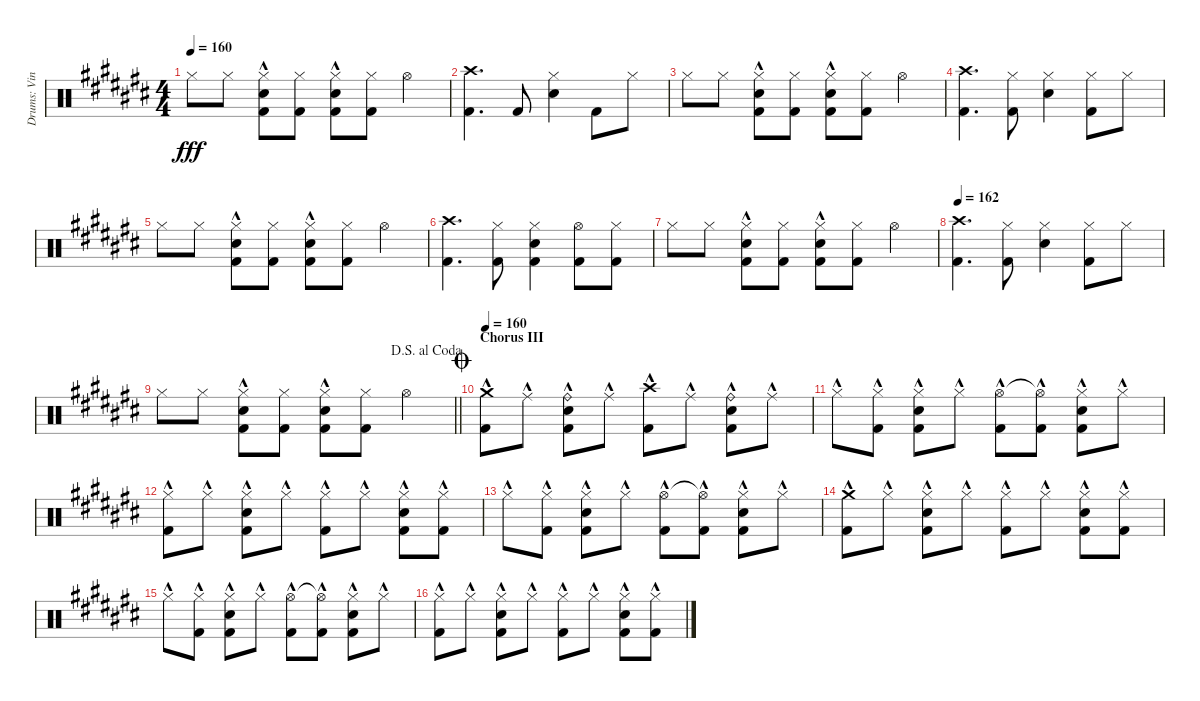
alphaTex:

\track ("Drums: Vinny" "Drums: Vin") {instrument percussion}
\staff {score}
\articulation defaults
\ts (4 4)
\tempo 160
\clef neutral
\ks c# "Hi-Hat (closed)".8{dy fff} "Hi-Hat (closed)".8
("Hi-Hat (closed)" "Snare (hit) 2"{hac} "Kick (hit) 2"{hac}).8 ("Hi-Hat (closed)" "Kick (hit) 2").8 ("Hi-Hat (closed)" "Electric Snare (hit)"{hac} "Kick (hit) 2"{hac}).8 ("Hi-Hat (closed)" "Kick (hit) 2").8 "Hi-Hat (open)".4 |
("Crash high (hit)" "Kick (hit) 2").4{d} "Kick (hit) 2".8 ("Hi-Hat (closed)" "Electric Snare (hit)").4 "Kick (hit) 2".8 "Hi-Hat (closed)".8 |
"Hi-Hat (closed)".8 "Hi-Hat (closed)".8 ("Hi-Hat (closed)" "Snare (hit) 2"{hac} "Kick (hit) 2"{hac}).8 ("Hi-Hat (closed)" "Kick (hit) 2").8 ("Hi-Hat (closed)" "Electric Snare (hit)"{hac} "Kick (hit) 2"{hac}).8 ("Hi-Hat (closed)" "Kick (hit) 2").8 "Hi-Hat (open)".4 |
("Crash high (hit)" "Kick (hit) 2").4{d} ("Hi-Hat (closed)" "Kick (hit) 2").8 ("Hi-Hat (closed)" "Electric Snare (hit)").4 ("Hi-Hat (closed)" "Kick (hit) 2").8 "Hi-Hat (closed)".8 |
"Hi-Hat (closed)".8 "Hi-Hat (closed)".8 ("Hi-Hat (closed)" "Snare (hit) 2"{hac} "Kick (hit) 2"{hac}).8 ("Hi-Hat (closed)" "Kick (hit) 2").8 ("Hi-Hat (closed)" "Electric Snare (hit)"{hac} "Kick (hit) 2"{hac}).8 ("Hi-Hat (closed)" "Kick (hit) 2").8 "Hi-Hat (open)".4 |
("Crash high (hit)" "Kick (hit) 2").4{d} ("Hi-Hat (closed)" "Kick (hit) 2").8 ("Hi-Hat (closed)" "Electric Snare (hit)" "Kick (hit) 2").4 ("Hi-Hat (open)" "Kick (hit) 2").8 ("Hi-Hat (closed)" "Kick (hit) 2").8 |
"Hi-Hat (closed)".8 "Hi-Hat (closed)".8 ("Hi-Hat (closed)" "Snare (hit) 2"{hac} "Kick (hit) 2"{hac}).8 ("Hi-Hat (closed)" "Kick (hit) 2").8 ("Hi-Hat (closed)" "Electric Snare (hit)"{hac} "Kick (hit) 2"{hac}).8 ("Hi-Hat (closed)" "Kick (hit) 2").8 "Hi-Hat (open)".4 |
\tempo 162
("Crash high (hit)" "Kick (hit) 2").4{d} ("Hi-Hat (closed)" "Kick (hit) 2").8 ("Hi-Hat (closed)" "Electric Snare (hit)").4 ("Hi-Hat (closed)" "Kick (hit) 2").8 "Hi-Hat (closed)".8 |
\jump dalsegnoalcoda
\barLineRight lightlight "Hi-Hat (closed)".8 "Hi-Hat (closed)".8
("Hi-Hat (closed)" "Snare (hit) 2"{hac} "Kick (hit) 2"{hac}).8 ("Hi-Hat (closed)" "Kick (hit) 2").8 ("Hi-Hat (closed)" "Electric Snare (hit)"{hac} "Kick (hit) 2"{hac}).8 ("Hi-Hat (closed)" "Kick (hit) 2").8 "Hi-Hat (open)".4 |
\section ("" "Chorus III")
\jump coda
\tempo 160
("Crash medium (hit)"{hac} "Kick (hit) 2"{hac}).8 "Ride (middle)"{hac}.8 ("Ride (bell)"{hac} "Snare (hit) 2"{hac} "Kick (hit) 2"{hac}).8 "Ride (middle)"{hac}.8 ("Crash high (hit)"{hac} "Kick (hit) 2"{hac}).8 "Ride (middle)"{hac}.8 ("Ride (bell)"{hac} "Snare (hit) 2"{hac} "Kick (hit) 2"{hac}).8 "Ride (middle)"{hac}.8 |
"Hi-Hat (closed)"{hac}.8 ("Hi-Hat (closed)"{hac} "Kick (hit) 2"{hac}).8 ("Hi-Hat (closed)"{hac} "Snare (hit) 2"{hac} "Kick (hit) 2"{hac}).8 "Hi-Hat (closed)"{hac}.8 ("Hi-Hat (open)"{hac} "Kick (hit) 2"{hac}).8 ("Hi-Hat (open)"{t} "Kick (hit) 2"{hac}).8 ("Hi-Hat (closed)"{hac} "Snare (hit) 2"{hac} "Kick (hit) 2"{hac}).8 "Hi-Hat (closed)"{hac}.8 |
("Hi-Hat (closed)"{hac} "Kick (hit) 2"{hac}).8 "Hi-Hat (closed)"{hac}.8 ("Hi-Hat (closed)"{hac} "Snare (hit) 2"{hac} "Kick (hit) 2"{hac}).8 "Hi-Hat (closed)"{hac}.8 ("Hi-Hat (closed)"{hac} "Kick (hit) 2"{hac}).8 "Hi-Hat (closed)"{hac}.8 ("Hi-Hat (closed)"{hac} "Snare (hit) 2"{hac} "Kick (hit) 2"{hac}).8 ("Hi-Hat (closed)"{hac} "Kick (hit) 2"{hac}).8 |
"Hi-Hat (closed)"{hac}.8 ("Hi-Hat (closed)"{hac} "Kick (hit) 2"{hac}).8 ("Hi-Hat (closed)"{hac} "Snare (hit) 2"{hac} "Kick (hit) 2"{hac}).8 "Hi-Hat (closed)"{hac}.8 ("Hi-Hat (open)"{hac} "Kick (hit) 2"{hac}).8 ("Hi-Hat (open)"{t} "Kick (hit) 2"{hac}).8 ("Hi-Hat (closed)"{hac} "Snare (hit) 2"{hac} "Kick (hit) 2"{hac}).8 "Hi-Hat (closed)"{hac}.8 |
("Crash medium (hit)"{hac} "Kick (hit) 2"{hac}).8 "Hi-Hat (closed)"{hac}.8 ("Hi-Hat (closed)"{hac} "Snare (hit) 2"{hac} "Kick (hit) 2"{hac}).8 "Hi-Hat (closed)"{hac}.8 ("Hi-Hat (closed)"{hac} "Kick (hit) 2"{hac}).8 "Hi-Hat (closed)"{hac}.8 ("Hi-Hat (closed)"{hac} "Snare (hit) 2"{hac} "Kick (hit) 2"{hac}).8 ("Hi-Hat (closed)"{hac} "Kick (hit) 2"{hac}).8 |
"Hi-Hat (closed)"{hac}.8 ("Hi-Hat (closed)"{hac} "Kick (hit) 2"{hac}).8 ("Hi-Hat (closed)"{hac} "Snare (hit) 2"{hac} "Kick (hit) 2"{hac}).8 "Hi-Hat (closed)"{hac}.8 ("Hi-Hat (open)"{hac} "Kick (hit) 2"{hac}).8 ("Hi-Hat (open)"{t} "Kick (hit) 2"{hac}).8 ("Hi-Hat (closed)"{hac} "Snare (hit) 2"{hac} "Kick (hit) 2"{hac}).8 "Hi-Hat (closed)"{hac}.8 |
("Hi-Hat (closed)"{hac} "Kick (hit) 2"{hac}).8 "Hi-Hat (closed)"{hac}.8 ("Hi-Hat (closed)"{hac} "Snare (hit) 2"{hac} "Kick (hit) 2"{hac}).8 "Hi-Hat (closed)"{hac}.8 ("Hi-Hat (closed)"{hac} "Kick (hit) 2"{hac}).8 "Hi-Hat (closed)"{hac}.8 ("Hi-Hat (closed)"{hac} "Snare (hit) 2"{hac} "Kick (hit) 2"{hac}).8 ("Hi-Hat (closed)"{hac} "Kick (hit) 2"{hac}).8
